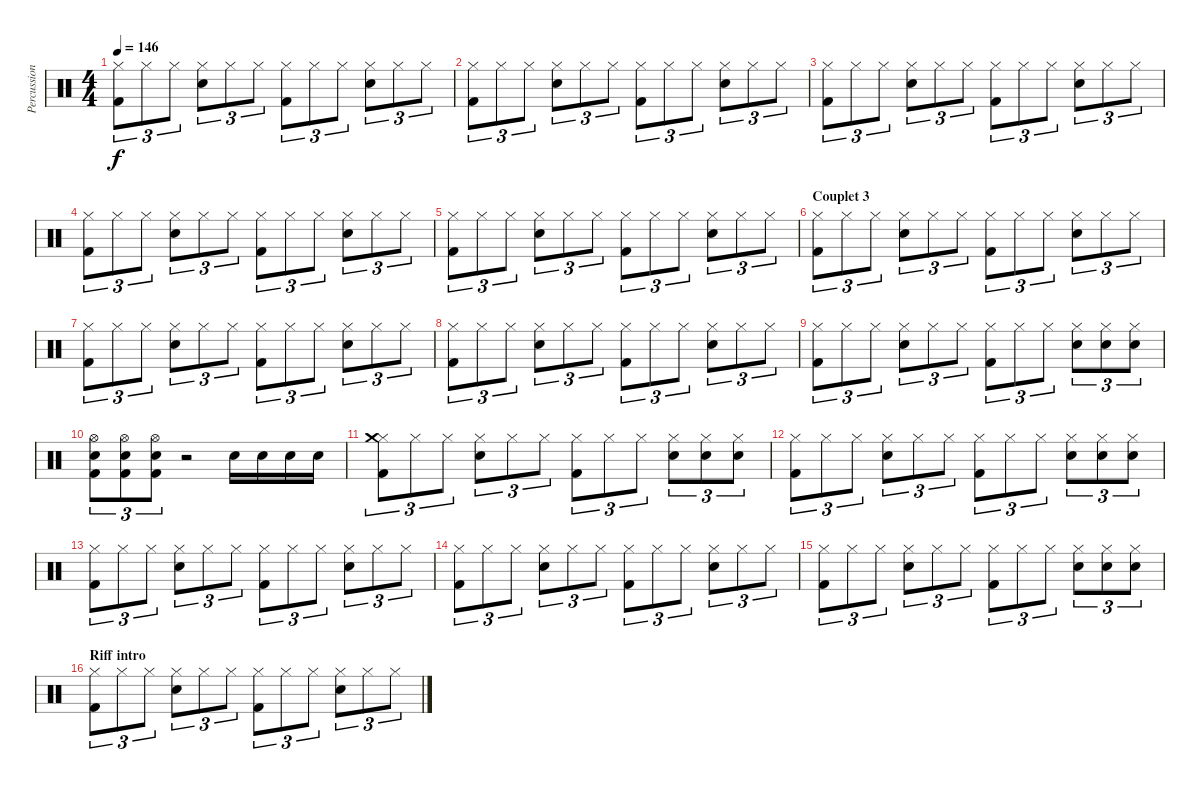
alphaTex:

\track ("Percussions" "Percussion") {instrument percussion}
\staff {score}
\articulation defaults
\ts (4 4)
\tempo 146
\clef neutral
\ks c
("Hi-Hat (closed)" "Kick (hit) 2").8{tu (3 2) dy f} "Hi-Hat (closed)".8{tu (3 2)} "Hi-Hat (closed)".8{tu (3 2)} ("Hi-Hat (closed)" "Electric Snare (hit)").8{tu (3 2)} "Hi-Hat (closed)".8{tu (3 2)} "Hi-Hat (closed)".8{tu (3 2)} ("Hi-Hat (closed)" "Kick (hit) 2").8{tu (3 2)} "Hi-Hat (closed)".8{tu (3 2)} "Hi-Hat (closed)".8{tu (3 2)} ("Hi-Hat (closed)" "Electric Snare (hit)").8{tu (3 2)} "Hi-Hat (closed)".8{tu (3 2)} "Hi-Hat (closed)".8{tu (3 2)} |
("Hi-Hat (closed)" "Kick (hit) 2").8{tu (3 2)} "Hi-Hat (closed)".8{tu (3 2)} "Hi-Hat (closed)".8{tu (3 2)} ("Hi-Hat (closed)" "Electric Snare (hit)").8{tu (3 2)} "Hi-Hat (closed)".8{tu (3 2)} "Hi-Hat (closed)".8{tu (3 2)} ("Hi-Hat (closed)" "Kick (hit) 2").8{tu (3 2)} "Hi-Hat (closed)".8{tu (3 2)} "Hi-Hat (closed)".8{tu (3 2)} ("Hi-Hat (closed)" "Electric Snare (hit)").8{tu (3 2)} "Hi-Hat (closed)".8{tu (3 2)} "Hi-Hat (closed)".8{tu (3 2)} |
("Hi-Hat (closed)" "Kick (hit) 2").8{tu (3 2)} "Hi-Hat (closed)".8{tu (3 2)} "Hi-Hat (closed)".8{tu (3 2)} ("Hi-Hat (closed)" "Electric Snare (hit)").8{tu (3 2)} "Hi-Hat (closed)".8{tu (3 2)} "Hi-Hat (closed)".8{tu (3 2)} ("Hi-Hat (closed)" "Kick (hit) 2").8{tu (3 2)} "Hi-Hat (closed)".8{tu (3 2)} "Hi-Hat (closed)".8{tu (3 2)} ("Hi-Hat (closed)" "Electric Snare (hit)").8{tu (3 2)} "Hi-Hat (closed)".8{tu (3 2)} "Hi-Hat (closed)".8{tu (3 2)} |
("Hi-Hat (closed)" "Kick (hit) 2").8{tu (3 2)} "Hi-Hat (closed)".8{tu (3 2)} "Hi-Hat (closed)".8{tu (3 2)} ("Hi-Hat (closed)" "Electric Snare (hit)").8{tu (3 2)} "Hi-Hat (closed)".8{tu (3 2)} "Hi-Hat (closed)".8{tu (3 2)} ("Hi-Hat (closed)" "Kick (hit) 2").8{tu (3 2)} "Hi-Hat (closed)".8{tu (3 2)} "Hi-Hat (closed)".8{tu (3 2)} ("Hi-Hat (closed)" "Electric Snare (hit)").8{tu (3 2)} "Hi-Hat (closed)".8{tu (3 2)} "Hi-Hat (closed)".8{tu (3 2)} |
("Hi-Hat (closed)" "Kick (hit) 2").8{tu (3 2)} "Hi-Hat (closed)".8{tu (3 2)} "Hi-Hat (closed)".8{tu (3 2)} ("Hi-Hat (closed)" "Electric Snare (hit)").8{tu (3 2)} "Hi-Hat (closed)".8{tu (3 2)} "Hi-Hat (closed)".8{tu (3 2)} ("Hi-Hat (closed)" "Kick (hit) 2").8{tu (3 2)} "Hi-Hat (closed)".8{tu (3 2)} "Hi-Hat (closed)".8{tu (3 2)} ("Hi-Hat (closed)" "Electric Snare (hit)").8{tu (3 2)} "Hi-Hat (closed)".8{tu (3 2)} "Hi-Hat (closed)".8{tu (3 2)} |
\section ("" "Couplet 3")
("Hi-Hat (closed)" "Kick (hit) 2").8{tu (3 2)} "Hi-Hat (closed)".8{tu (3 2)} "Hi-Hat (closed)".8{tu (3 2)} ("Hi-Hat (closed)" "Electric Snare (hit)").8{tu (3 2)} "Hi-Hat (closed)".8{tu (3 2)} "Hi-Hat (closed)".8{tu (3 2)} ("Hi-Hat (closed)" "Kick (hit) 2").8{tu (3 2)} "Hi-Hat (closed)".8{tu (3 2)} "Hi-Hat (closed)".8{tu (3 2)} ("Hi-Hat (closed)" "Electric Snare (hit)").8{tu (3 2)} "Hi-Hat (closed)".8{tu (3 2)} "Hi-Hat (closed)".8{tu (3 2)} |
("Hi-Hat (closed)" "Kick (hit) 2").8{tu (3 2)} "Hi-Hat (closed)".8{tu (3 2)} "Hi-Hat (closed)".8{tu (3 2)} ("Hi-Hat (closed)" "Electric Snare (hit)").8{tu (3 2)} "Hi-Hat (closed)".8{tu (3 2)} "Hi-Hat (closed)".8{tu (3 2)} ("Hi-Hat (closed)" "Kick (hit) 2").8{tu (3 2)} "Hi-Hat (closed)".8{tu (3 2)} "Hi-Hat (closed)".8{tu (3 2)} ("Hi-Hat (closed)" "Electric Snare (hit)").8{tu (3 2)} "Hi-Hat (closed)".8{tu (3 2)} "Hi-Hat (closed)".8{tu (3 2)} |
("Hi-Hat (closed)" "Kick (hit) 2").8{tu (3 2)} "Hi-Hat (closed)".8{tu (3 2)} "Hi-Hat (closed)".8{tu (3 2)} ("Hi-Hat (closed)" "Electric Snare (hit)").8{tu (3 2)} "Hi-Hat (closed)".8{tu (3 2)} "Hi-Hat (closed)".8{tu (3 2)} ("Hi-Hat (closed)" "Kick (hit) 2").8{tu (3 2)} "Hi-Hat (closed)".8{tu (3 2)} "Hi-Hat (closed)".8{tu (3 2)} ("Hi-Hat (closed)" "Electric Snare (hit)").8{tu (3 2)} "Hi-Hat (closed)".8{tu (3 2)} "Hi-Hat (closed)".8{tu (3 2)} |
("Hi-Hat (closed)" "Kick (hit) 2").8{tu (3 2)} "Hi-Hat (closed)".8{tu (3 2)} "Hi-Hat (closed)".8{tu (3 2)} ("Hi-Hat (closed)" "Electric Snare (hit)").8{tu (3 2)} "Hi-Hat (closed)".8{tu (3 2)} "Hi-Hat (closed)".8{tu (3 2)} ("Hi-Hat (closed)" "Kick (hit) 2").8{tu (3 2)} "Hi-Hat (closed)".8{tu (3 2)} "Hi-Hat (closed)".8{tu (3 2)} ("Hi-Hat (closed)" "Electric Snare (hit)").8{tu (3 2)} ("Hi-Hat (closed)" "Electric Snare (hit)").8{tu (3 2)} ("Hi-Hat (closed)" "Electric Snare (hit)").8{tu (3 2)} |
("Hi-Hat (open)" "Electric Snare (hit)" "Kick (hit) 2").8{tu (3 2)} ("Hi-Hat (open)" "Electric Snare (hit)" "Kick (hit) 2").8{tu (3 2)} ("Hi-Hat (open)" "Electric Snare (hit)" "Kick (hit) 2").8{tu (3 2)} r.2 "Electric Snare (hit)".16 "Electric Snare (hit)".16 "Electric Snare (hit)".16 "Electric Snare (hit)".16 |
("Hi-Hat (closed)" "Crash medium (hit)" "Kick (hit) 2").8{tu (3 2)} "Hi-Hat (closed)".8{tu (3 2)} "Hi-Hat (closed)".8{tu (3 2)} ("Hi-Hat (closed)" "Electric Snare (hit)").8{tu (3 2)} "Hi-Hat (closed)".8{tu (3 2)} "Hi-Hat (closed)".8{tu (3 2)} ("Hi-Hat (closed)" "Kick (hit) 2").8{tu (3 2)} "Hi-Hat (closed)".8{tu (3 2)} "Hi-Hat (closed)".8{tu (3 2)} ("Hi-Hat (closed)" "Electric Snare (hit)").8{tu (3 2)} ("Hi-Hat (closed)" "Electric Snare (hit)").8{tu (3 2)} ("Hi-Hat (closed)" "Electric Snare (hit)").8{tu (3 2)} |
("Hi-Hat (closed)" "Kick (hit) 2").8{tu (3 2)} "Hi-Hat (closed)".8{tu (3 2)} "Hi-Hat (closed)".8{tu (3 2)} ("Hi-Hat (closed)" "Electric Snare (hit)").8{tu (3 2)} "Hi-Hat (closed)".8{tu (3 2)} "Hi-Hat (closed)".8{tu (3 2)} ("Hi-Hat (closed)" "Kick (hit) 2").8{tu (3 2)} "Hi-Hat (closed)".8{tu (3 2)} "Hi-Hat (closed)".8{tu (3 2)} ("Hi-Hat (closed)" "Electric Snare (hit)").8{tu (3 2)} ("Hi-Hat (closed)" "Electric Snare (hit)").8{tu (3 2)} ("Hi-Hat (closed)" "Electric Snare (hit)").8{tu (3 2)} |
("Hi-Hat (closed)" "Kick (hit) 2").8{tu (3 2)} "Hi-Hat (closed)".8{tu (3 2)} "Hi-Hat (closed)".8{tu (3 2)} ("Hi-Hat (closed)" "Electric Snare (hit)").8{tu (3 2)} "Hi-Hat (closed)".8{tu (3 2)} "Hi-Hat (closed)".8{tu (3 2)} ("Hi-Hat (closed)" "Kick (hit) 2").8{tu (3 2)} "Hi-Hat (closed)".8{tu (3 2)} "Hi-Hat (closed)".8{tu (3 2)} ("Hi-Hat (closed)" "Electric Snare (hit)").8{tu (3 2)} "Hi-Hat (closed)".8{tu (3 2)} "Hi-Hat (closed)".8{tu (3 2)} |
("Hi-Hat (closed)" "Kick (hit) 2").8{tu (3 2)} "Hi-Hat (closed)".8{tu (3 2)} "Hi-Hat (closed)".8{tu (3 2)} ("Hi-Hat (closed)" "Electric Snare (hit)").8{tu (3 2)} "Hi-Hat (closed)".8{tu (3 2)} "Hi-Hat (closed)".8{tu (3 2)} ("Hi-Hat (closed)" "Kick (hit) 2").8{tu (3 2)} "Hi-Hat (closed)".8{tu (3 2)} "Hi-Hat (closed)".8{tu (3 2)} ("Hi-Hat (closed)" "Electric Snare (hit)").8{tu (3 2)} "Hi-Hat (closed)".8{tu (3 2)} "Hi-Hat (closed)".8{tu (3 2)} |
("Hi-Hat (closed)" "Kick (hit) 2").8{tu (3 2)} "Hi-Hat (closed)".8{tu (3 2)} "Hi-Hat (closed)".8{tu (3 2)} ("Hi-Hat (closed)" "Electric Snare (hit)").8{tu (3 2)} "Hi-Hat (closed)".8{tu (3 2)} "Hi-Hat (closed)".8{tu (3 2)} ("Hi-Hat (closed)" "Kick (hit) 2").8{tu (3 2)} "Hi-Hat (closed)".8{tu (3 2)} "Hi-Hat (closed)".8{tu (3 2)} ("Hi-Hat (closed)" "Electric Snare (hit)").8{tu (3 2)} ("Hi-Hat (closed)" "Electric Snare (hit)").8{tu (3 2)} ("Hi-Hat (closed)" "Electric Snare (hit)").8{tu (3 2)} |
\section ("" "Riff intro")
("Hi-Hat (closed)" "Kick (hit) 2").8{tu (3 2)} "Hi-Hat (closed)".8{tu (3 2)} "Hi-Hat (closed)".8{tu (3 2)} ("Hi-Hat (closed)" "Electric Snare (hit)").8{tu (3 2)} "Hi-Hat (closed)".8{tu (3 2)} "Hi-Hat (closed)".8{tu (3 2)} ("Hi-Hat (closed)" "Kick (hit) 2").8{tu (3 2)} "Hi-Hat (closed)".8{tu (3 2)} "Hi-Hat (closed)".8{tu (3 2)} ("Hi-Hat (closed)" "Electric Snare (hit)").8{tu (3 2)} "Hi-Hat (closed)".8{tu (3 2)} "Hi-Hat (closed)".8{tu (3 2)}
